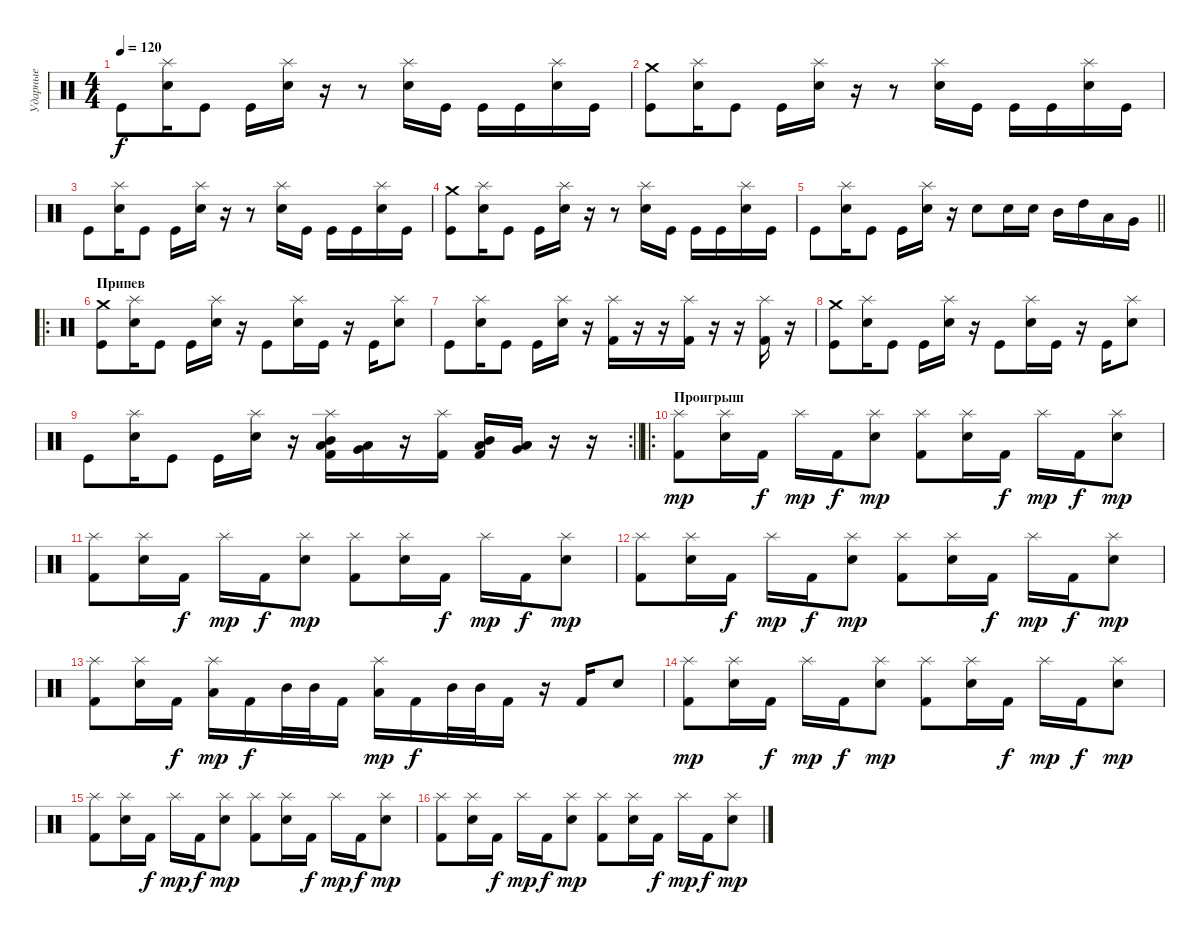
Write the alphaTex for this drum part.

\track ("Ударные" "Ударные") {instrument percussion}
\staff {score}
\articulation defaults
\ts (4 4)
\tempo 120
\clef neutral
\ks c "Kick (hit)".8{dy f}
("Splash (hit)" "Electric Snare (hit)").16 "Kick (hit)".8 "Kick (hit)".16 ("Splash (hit)" "Electric Snare (hit)").16 r.16 r.8 ("Splash (hit)" "Electric Snare (hit)").16 "Kick (hit)".16 "Kick (hit)".16 "Kick (hit)".16 ("Splash (hit)" "Electric Snare (hit)").16 "Kick (hit)".16 |
("Crash medium (hit)" "Kick (hit)").8 ("Splash (hit)" "Electric Snare (hit)").16 "Kick (hit)".8 "Kick (hit)".16 ("Splash (hit)" "Electric Snare (hit)").16 r.16 r.8 ("Splash (hit)" "Electric Snare (hit)").16 "Kick (hit)".16 "Kick (hit)".16 "Kick (hit)".16 ("Splash (hit)" "Electric Snare (hit)").16 "Kick (hit)".16 |
"Kick (hit)".8 ("Splash (hit)" "Electric Snare (hit)").16 "Kick (hit)".8 "Kick (hit)".16 ("Splash (hit)" "Electric Snare (hit)").16 r.16 r.8 ("Splash (hit)" "Electric Snare (hit)").16 "Kick (hit)".16 "Kick (hit)".16 "Kick (hit)".16 ("Splash (hit)" "Electric Snare (hit)").16 "Kick (hit)".16 |
("Crash medium (hit)" "Kick (hit)").8 ("Splash (hit)" "Electric Snare (hit)").16 "Kick (hit)".8 "Kick (hit)".16 ("Splash (hit)" "Electric Snare (hit)").16 r.16 r.8 ("Splash (hit)" "Electric Snare (hit)").16 "Kick (hit)".16 "Kick (hit)".16 "Kick (hit)".16 ("Splash (hit)" "Electric Snare (hit)").16 "Kick (hit)".16 |
\barLineRight lightlight "Kick (hit)".8
("Splash (hit)" "Electric Snare (hit)").16 "Kick (hit)".8 "Kick (hit)".16 ("Splash (hit)" "Electric Snare (hit)").16 r.16 "Electric Snare (hit)".8 "Electric Snare (hit)".16 "Electric Snare (hit)".16 "Mid Tom (hit)".16 "High Tom (hit)".16 "Low Tom (hit)".16 "Very Low Tom (hit)".16 |
\ro
\section ("" "Припев")
("Crash medium (hit)" "Kick (hit)").8 ("Splash (hit)" "Electric Snare (hit)").16 "Kick (hit)".8 "Kick (hit)".16 ("Splash (hit)" "Electric Snare (hit)").16 r.16 "Kick (hit)".8 ("Splash (hit)" "Electric Snare (hit)").16 "Kick (hit)".16 r.16 "Kick (hit)".16 ("Splash (hit)" "Electric Snare (hit)").8 |
"Kick (hit)".8 ("Splash (hit)" "Electric Snare (hit)").16 "Kick (hit)".8 "Kick (hit)".16 ("Splash (hit)" "Electric Snare (hit)").16 r.16 ("Splash (hit)" "Kick (hit) 2").16 r.16 r.16 ("Splash (hit)" "Kick (hit) 2").16 r.16 r.16 ("Splash (hit)" "Kick (hit) 2").16 r.16 |
("Crash medium (hit)" "Kick (hit)").8 ("Splash (hit)" "Electric Snare (hit)").16 "Kick (hit)".8 "Kick (hit)".16 ("Splash (hit)" "Electric Snare (hit)").16 r.16 "Kick (hit)".8 ("Splash (hit)" "Electric Snare (hit)").16 "Kick (hit)".16 r.16 "Kick (hit)".16 ("Splash (hit)" "Electric Snare (hit)").8 |
\rc 2
\barLineRight lightlight "Kick (hit)".8
("Splash (hit)" "Electric Snare (hit)").16 "Kick (hit)".8 "Kick (hit)".16 ("Splash (hit)" "Electric Snare (hit)").16 r.16 ("Splash (hit)" "Mid Tom (hit)" "Low Tom (hit)" "Kick (hit) 2").16 ("Low Tom (hit)" "Very Low Tom (hit)").16 r.16 ("Splash (hit)" "Kick (hit) 2").16 ("Mid Tom (hit)" "Low Tom (hit)" "Kick (hit) 2").16 ("Low Tom (hit)" "Very Low Tom (hit)").16 r.16 r.16 |
\ro
\section ("" "Проигрыш")
("Splash (hit)" "Kick (hit) 2").8{dy mp} ("Splash (hit)" "Electric Snare (hit)").16 "Kick (hit) 2".16{dy f} "Splash (hit)".16{dy mp} "Kick (hit) 2".16{dy f} ("Splash (hit)" "Electric Snare (hit)").8{dy mp} ("Splash (hit)" "Kick (hit) 2").8 ("Splash (hit)" "Electric Snare (hit)").16 "Kick (hit) 2".16{dy f} "Splash (hit)".16{dy mp} "Kick (hit) 2".16{dy f} ("Splash (hit)" "Electric Snare (hit)").8{dy mp} |
("Splash (hit)" "Kick (hit) 2").8 ("Splash (hit)" "Electric Snare (hit)").16 "Kick (hit) 2".16{dy f} "Splash (hit)".16{dy mp} "Kick (hit) 2".16{dy f} ("Splash (hit)" "Electric Snare (hit)").8{dy mp} ("Splash (hit)" "Kick (hit) 2").8 ("Splash (hit)" "Electric Snare (hit)").16 "Kick (hit) 2".16{dy f} "Splash (hit)".16{dy mp} "Kick (hit) 2".16{dy f} ("Splash (hit)" "Electric Snare (hit)").8{dy mp} |
("Splash (hit)" "Kick (hit) 2").8 ("Splash (hit)" "Electric Snare (hit)").16 "Kick (hit) 2".16{dy f} "Splash (hit)".16{dy mp} "Kick (hit) 2".16{dy f} ("Splash (hit)" "Electric Snare (hit)").8{dy mp} ("Splash (hit)" "Kick (hit) 2").8 ("Splash (hit)" "Electric Snare (hit)").16 "Kick (hit) 2".16{dy f} "Splash (hit)".16{dy mp} "Kick (hit) 2".16{dy f} ("Splash (hit)" "Electric Snare (hit)").8{dy mp} |
("Splash (hit)" "Kick (hit) 2").8 ("Splash (hit)" "Electric Snare (hit)").16 "Kick (hit) 2".16{dy f} ("Splash (hit)" "Low Tom (hit)").16{dy mp} "Kick (hit) 2".16{dy f} "Mid Tom (hit)".32 "Mid Tom (hit)".32 "Kick (hit) 2".16 ("Splash (hit)" "Low Tom (hit)").16{dy mp} "Kick (hit) 2".16{dy f} "Mid Tom (hit)".32 "Mid Tom (hit)".32 "Kick (hit) 2".16 r.16 "Kick (hit) 2".16 "Electric Snare (hit)".8 |
("Splash (hit)" "Kick (hit) 2").8{dy mp} ("Splash (hit)" "Electric Snare (hit)").16 "Kick (hit) 2".16{dy f} "Splash (hit)".16{dy mp} "Kick (hit) 2".16{dy f} ("Splash (hit)" "Electric Snare (hit)").8{dy mp} ("Splash (hit)" "Kick (hit) 2").8 ("Splash (hit)" "Electric Snare (hit)").16 "Kick (hit) 2".16{dy f} "Splash (hit)".16{dy mp} "Kick (hit) 2".16{dy f} ("Splash (hit)" "Electric Snare (hit)").8{dy mp} |
("Splash (hit)" "Kick (hit) 2").8 ("Splash (hit)" "Electric Snare (hit)").16 "Kick (hit) 2".16{dy f} "Splash (hit)".16{dy mp} "Kick (hit) 2".16{dy f} ("Splash (hit)" "Electric Snare (hit)").8{dy mp} ("Splash (hit)" "Kick (hit) 2").8 ("Splash (hit)" "Electric Snare (hit)").16 "Kick (hit) 2".16{dy f} "Splash (hit)".16{dy mp} "Kick (hit) 2".16{dy f} ("Splash (hit)" "Electric Snare (hit)").8{dy mp} |
("Splash (hit)" "Kick (hit) 2").8 ("Splash (hit)" "Electric Snare (hit)").16 "Kick (hit) 2".16{dy f} "Splash (hit)".16{dy mp} "Kick (hit) 2".16{dy f} ("Splash (hit)" "Electric Snare (hit)").8{dy mp} ("Splash (hit)" "Kick (hit) 2").8 ("Splash (hit)" "Electric Snare (hit)").16 "Kick (hit) 2".16{dy f} "Splash (hit)".16{dy mp} "Kick (hit) 2".16{dy f} ("Splash (hit)" "Electric Snare (hit)").8{dy mp}
